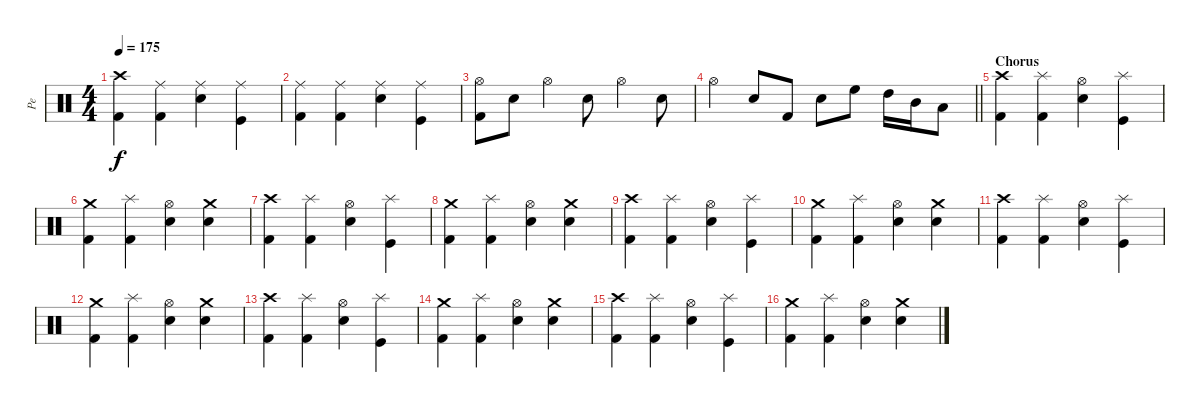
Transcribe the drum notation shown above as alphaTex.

\track ("Pe" "Pe") {instrument percussion}
\staff {score}
\articulation defaults
\ts (4 4)
\tempo 175
\clef neutral
\ks c
("Kick (hit) 2" "Crash high (hit)").4{dy f} ("Kick (hit) 2" "Ride (middle)").4 ("Electric Snare (hit)" "Ride (middle)").4 ("Kick (hit)" "Ride (middle)").4 |
("Kick (hit) 2" "Ride (middle)").4 ("Kick (hit) 2" "Ride (middle)").4 ("Electric Snare (hit)" "Ride (middle)").4 ("Kick (hit)" "Ride (middle)").4 |
("Kick (hit) 2" "Hi-Hat (open)").8 "Electric Snare (hit)".8 "Hi-Hat (open)".4 "Electric Snare (hit)".8 "Hi-Hat (open)".4 "Electric Snare (hit)".8 |
\barLineRight lightlight "Hi-Hat (open)".4 "Electric Snare (hit)".8 "Kick (hit) 2".8 "Electric Snare (hit)".8 "High Floor Tom (hit)".8 "High Tom (hit)".16 "Mid Tom (hit)".16 "Low Tom (hit)".8
|
\section ("" "Chorus")
("Kick (hit) 2" "Crash high (hit)").4 ("Kick (hit) 2" "Splash (hit)").4 ("Electric Snare (hit)" "Hi-Hat (open)").4 ("Kick (hit)" "Splash (hit)").4 |
("Kick (hit) 2" "Crash medium (hit)").4 ("Kick (hit) 2" "Splash (hit)").4 ("Electric Snare (hit)" "Hi-Hat (open)").4 ("Electric Snare (hit)" "Crash medium (hit)").4 |
("Kick (hit) 2" "Crash high (hit)").4 ("Kick (hit) 2" "Splash (hit)").4 ("Electric Snare (hit)" "Hi-Hat (open)").4 ("Kick (hit)" "Splash (hit)").4 |
("Kick (hit) 2" "Crash medium (hit)").4 ("Kick (hit) 2" "Splash (hit)").4 ("Electric Snare (hit)" "Hi-Hat (open)").4 ("Electric Snare (hit)" "Crash medium (hit)").4 |
("Kick (hit) 2" "Crash high (hit)").4 ("Kick (hit) 2" "Splash (hit)").4 ("Electric Snare (hit)" "Hi-Hat (open)").4 ("Kick (hit)" "Splash (hit)").4 |
("Kick (hit) 2" "Crash medium (hit)").4 ("Kick (hit) 2" "Splash (hit)").4 ("Electric Snare (hit)" "Hi-Hat (open)").4 ("Electric Snare (hit)" "Crash medium (hit)").4 |
("Kick (hit) 2" "Crash high (hit)").4 ("Kick (hit) 2" "Splash (hit)").4 ("Electric Snare (hit)" "Hi-Hat (open)").4 ("Kick (hit)" "Splash (hit)").4 |
("Kick (hit) 2" "Crash medium (hit)").4 ("Kick (hit) 2" "Splash (hit)").4 ("Electric Snare (hit)" "Hi-Hat (open)").4 ("Electric Snare (hit)" "Crash medium (hit)").4 |
("Kick (hit) 2" "Crash high (hit)").4 ("Kick (hit) 2" "Splash (hit)").4 ("Electric Snare (hit)" "Hi-Hat (open)").4 ("Kick (hit)" "Splash (hit)").4 |
("Kick (hit) 2" "Crash medium (hit)").4 ("Kick (hit) 2" "Splash (hit)").4 ("Electric Snare (hit)" "Hi-Hat (open)").4 ("Electric Snare (hit)" "Crash medium (hit)").4 |
("Kick (hit) 2" "Crash high (hit)").4 ("Kick (hit) 2" "Splash (hit)").4 ("Electric Snare (hit)" "Hi-Hat (open)").4 ("Kick (hit)" "Splash (hit)").4 |
("Kick (hit) 2" "Crash medium (hit)").4 ("Kick (hit) 2" "Splash (hit)").4 ("Electric Snare (hit)" "Hi-Hat (open)").4 ("Electric Snare (hit)" "Crash medium (hit)").4
